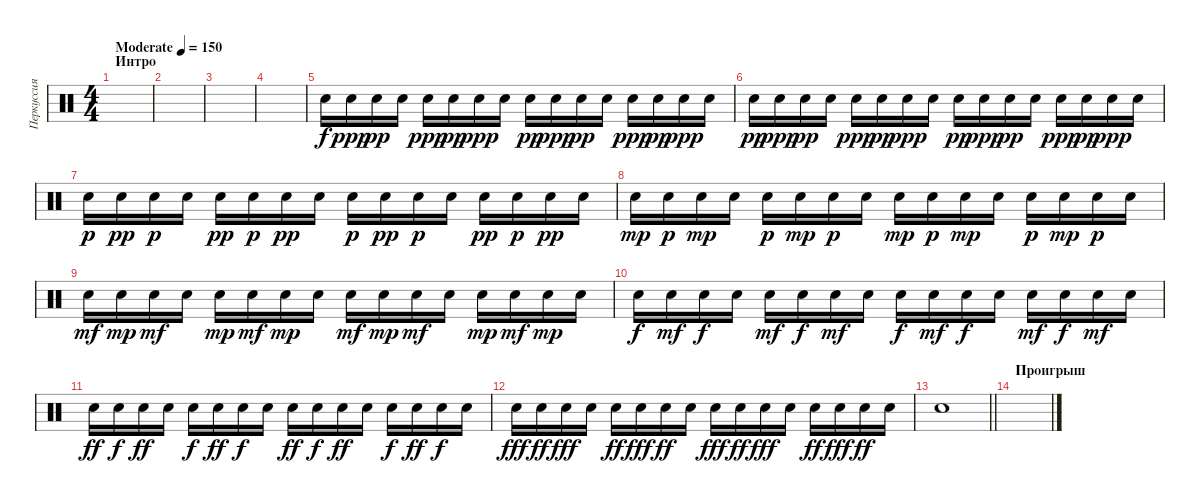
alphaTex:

\track ("Перкуссия" "Перкуссия") {instrument percussion}
\staff {score}
\articulation defaults
\ts (4 4)
\section ("" "Интро")
\tempo (150 "Moderate")
\clef neutral
\ks c
|
|
|
|
"Snare (hit) 2".16 "Snare (hit) 2".16{dy ppp} "Snare (hit) 2".16{dy pp} "Snare (hit) 2".16 "Snare (hit) 2".16{dy ppp} "Snare (hit) 2".16{dy pp} "Snare (hit) 2".16{dy ppp} "Snare (hit) 2".16 "Snare (hit) 2".16{dy pp} "Snare (hit) 2".16{dy ppp} "Snare (hit) 2".16{dy pp} "Snare (hit) 2".16 "Snare (hit) 2".16{dy ppp} "Snare (hit) 2".16{dy pp} "Snare (hit) 2".16{dy ppp} "Snare (hit) 2".16 |
"Snare (hit) 2".16{dy pp} "Snare (hit) 2".16{dy ppp} "Snare (hit) 2".16{dy pp} "Snare (hit) 2".16 "Snare (hit) 2".16{dy ppp} "Snare (hit) 2".16{dy pp} "Snare (hit) 2".16{dy ppp} "Snare (hit) 2".16 "Snare (hit) 2".16{dy pp} "Snare (hit) 2".16{dy ppp} "Snare (hit) 2".16{dy pp} "Snare (hit) 2".16 "Snare (hit) 2".16{dy ppp} "Snare (hit) 2".16{dy pp} "Snare (hit) 2".16{dy ppp} "Snare (hit) 2".16 |
"Snare (hit) 2".16{dy p} "Snare (hit) 2".16{dy pp} "Snare (hit) 2".16{dy p} "Snare (hit) 2".16 "Snare (hit) 2".16{dy pp} "Snare (hit) 2".16{dy p} "Snare (hit) 2".16{dy pp} "Snare (hit) 2".16 "Snare (hit) 2".16{dy p} "Snare (hit) 2".16{dy pp} "Snare (hit) 2".16{dy p} "Snare (hit) 2".16 "Snare (hit) 2".16{dy pp} "Snare (hit) 2".16{dy p} "Snare (hit) 2".16{dy pp} "Snare (hit) 2".16 |
"Snare (hit) 2".16{dy mp} "Snare (hit) 2".16{dy p} "Snare (hit) 2".16{dy mp} "Snare (hit) 2".16 "Snare (hit) 2".16{dy p} "Snare (hit) 2".16{dy mp} "Snare (hit) 2".16{dy p} "Snare (hit) 2".16 "Snare (hit) 2".16{dy mp} "Snare (hit) 2".16{dy p} "Snare (hit) 2".16{dy mp} "Snare (hit) 2".16 "Snare (hit) 2".16{dy p} "Snare (hit) 2".16{dy mp} "Snare (hit) 2".16{dy p} "Snare (hit) 2".16 |
"Snare (hit) 2".16{dy mf} "Snare (hit) 2".16{dy mp} "Snare (hit) 2".16{dy mf} "Snare (hit) 2".16 "Snare (hit) 2".16{dy mp} "Snare (hit) 2".16{dy mf} "Snare (hit) 2".16{dy mp} "Snare (hit) 2".16 "Snare (hit) 2".16{dy mf} "Snare (hit) 2".16{dy mp} "Snare (hit) 2".16{dy mf} "Snare (hit) 2".16 "Snare (hit) 2".16{dy mp} "Snare (hit) 2".16{dy mf} "Snare (hit) 2".16{dy mp} "Snare (hit) 2".16 |
"Snare (hit) 2".16{dy f} "Snare (hit) 2".16{dy mf} "Snare (hit) 2".16{dy f} "Snare (hit) 2".16 "Snare (hit) 2".16{dy mf} "Snare (hit) 2".16{dy f} "Snare (hit) 2".16{dy mf} "Snare (hit) 2".16 "Snare (hit) 2".16{dy f} "Snare (hit) 2".16{dy mf} "Snare (hit) 2".16{dy f} "Snare (hit) 2".16 "Snare (hit) 2".16{dy mf} "Snare (hit) 2".16{dy f} "Snare (hit) 2".16{dy mf} "Snare (hit) 2".16 |
"Snare (hit) 2".16{dy ff} "Snare (hit) 2".16{dy f} "Snare (hit) 2".16{dy ff} "Snare (hit) 2".16 "Snare (hit) 2".16{dy f} "Snare (hit) 2".16{dy ff} "Snare (hit) 2".16{dy f} "Snare (hit) 2".16 "Snare (hit) 2".16{dy ff} "Snare (hit) 2".16{dy f} "Snare (hit) 2".16{dy ff} "Snare (hit) 2".16 "Snare (hit) 2".16{dy f} "Snare (hit) 2".16{dy ff} "Snare (hit) 2".16{dy f} "Snare (hit) 2".16 |
"Snare (hit) 2".16{dy fff} "Snare (hit) 2".16{dy ff} "Snare (hit) 2".16{dy fff} "Snare (hit) 2".16 "Snare (hit) 2".16{dy ff} "Snare (hit) 2".16{dy fff} "Snare (hit) 2".16{dy ff} "Snare (hit) 2".16 "Snare (hit) 2".16{dy fff} "Snare (hit) 2".16{dy ff} "Snare (hit) 2".16{dy fff} "Snare (hit) 2".16 "Snare (hit) 2".16{dy ff} "Snare (hit) 2".16{dy fff} "Snare (hit) 2".16{dy ff} "Snare (hit) 2".16 |
\barLineRight lightlight "Snare (hit) 2".1
|
\section ("" "Проигрыш")
